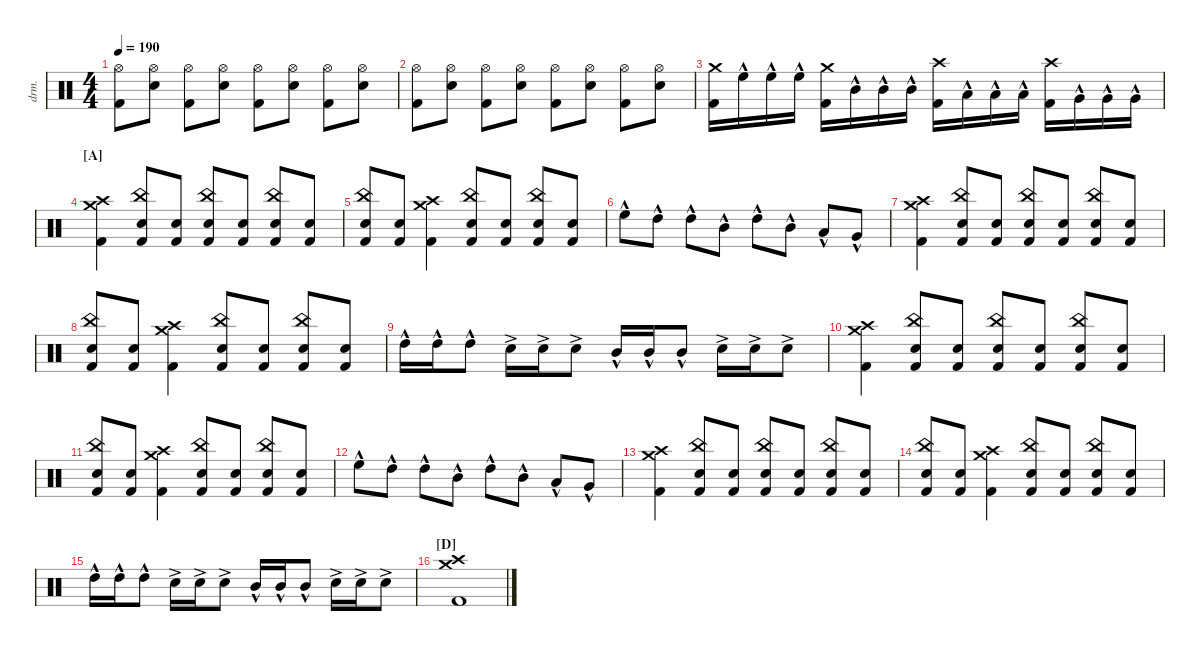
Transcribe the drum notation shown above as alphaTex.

\defaultSystemsLayout 4
\hideDynamics
\bracketExtendMode nobrackets
\otherSystemsTrackNameOrientation horizontal
\track ("Drumkit" "drm.") {instrument percussion}
\staff {score}
\articulation defaults
\ts (4 4)
\tempo 190
\clef neutral
\ks c
("Kick (hit) 2" "Hi-Hat (open)").8{dy mf beam Down} ("Snare (hit) 2" "Hi-Hat (open)").8{beam Down} ("Kick (hit) 2" "Hi-Hat (open)").8{beam Down} ("Snare (hit) 2" "Hi-Hat (open)").8{beam Down} ("Kick (hit) 2" "Hi-Hat (open)").8{beam Down} ("Snare (hit) 2" "Hi-Hat (open)").8{beam Down} ("Kick (hit) 2" "Hi-Hat (open)").8{beam Down} ("Snare (hit) 2" "Hi-Hat (open)").8{beam Down} |
("Kick (hit) 2" "Hi-Hat (open)").8{beam Down} ("Snare (hit) 2" "Hi-Hat (open)").8{beam Down} ("Kick (hit) 2" "Hi-Hat (open)").8{beam Down} ("Snare (hit) 2" "Hi-Hat (open)").8{beam Down} ("Kick (hit) 2" "Hi-Hat (open)").8{beam Down} ("Snare (hit) 2" "Hi-Hat (open)").8{beam Down} ("Kick (hit) 2" "Hi-Hat (open)").8{beam Down} ("Snare (hit) 2" "Hi-Hat (open)").8{beam Down} |
("Crash medium (hit)" "Kick (hit) 2").16{beam Down} "High Floor Tom (hit)"{hac}.16{beam Down} "High Floor Tom (hit)"{hac}.16{beam Down} "High Floor Tom (hit)"{hac}.16{beam Down} ("Kick (hit) 2" "Crash medium (hit)").16{beam Down} "Mid Tom (hit)"{hac}.16{beam Down} "Mid Tom (hit)"{hac}.16{beam Down} "Mid Tom (hit)"{hac}.16{beam Down} ("Kick (hit) 2" "Crash high (hit)").16{beam Down} "Low Tom (hit)"{hac}.16{beam Down} "Low Tom (hit)"{hac}.16{beam Down} "Low Tom (hit)"{hac}.16{beam Down} ("Kick (hit) 2" "Crash high (hit)").16{beam Down} "Very Low Tom (hit)"{hac}.16{beam Down} "Very Low Tom (hit)"{hac}.16{beam Down} "Very Low Tom (hit)"{hac}.16{beam Down} |
\section ("A" "")
("Kick (hit) 2" "Crash high (hit)" "Crash medium (hit)").4{beam Down} ("Kick (hit) 2" "Snare (hit) 2" "China (hit)").8{beam Up} ("Kick (hit) 2" "Snare (hit) 2").8{beam Up} ("Kick (hit) 2" "Snare (hit) 2" "China (hit)").8{beam Up} ("Kick (hit) 2" "Snare (hit) 2").8{beam Up} ("Kick (hit) 2" "Snare (hit) 2" "China (hit)").8{beam Up} ("Kick (hit) 2" "Snare (hit) 2").8{beam Up} |
("Kick (hit) 2" "Snare (hit) 2" "China (hit)").8{beam Up} ("Kick (hit) 2" "Snare (hit) 2").8{beam Up} ("Kick (hit) 2" "Crash high (hit)" "Crash medium (hit)").4{beam Down} ("Kick (hit) 2" "Snare (hit) 2" "China (hit)").8{beam Up} ("Kick (hit) 2" "Snare (hit) 2").8{beam Up} ("Kick (hit) 2" "Snare (hit) 2" "China (hit)").8{beam Up} ("Kick (hit) 2" "Snare (hit) 2").8{beam Up} |
"High Floor Tom (hit)"{hac}.8{beam Down} "High Tom (hit)"{hac}.8{beam Down} "High Tom (hit)"{hac}.8{beam Down} "Mid Tom (hit)"{hac}.8{beam Down} "High Tom (hit)"{hac}.8{beam Down} "Mid Tom (hit)"{hac}.8{beam Down} "Low Tom (hit)"{hac}.8{beam Up} "Very Low Tom (hit)"{hac}.8{beam Up} |
("Kick (hit) 2" "Crash high (hit)" "Crash medium (hit)").4{beam Down} ("Kick (hit) 2" "Snare (hit) 2" "China (hit)").8{beam Up} ("Kick (hit) 2" "Snare (hit) 2").8{beam Up} ("Kick (hit) 2" "Snare (hit) 2" "China (hit)").8{beam Up} ("Kick (hit) 2" "Snare (hit) 2").8{beam Up} ("Kick (hit) 2" "Snare (hit) 2" "China (hit)").8{beam Up} ("Kick (hit) 2" "Snare (hit) 2").8{beam Up} |
("Kick (hit) 2" "Snare (hit) 2" "China (hit)").8{beam Up} ("Kick (hit) 2" "Snare (hit) 2").8{beam Up} ("Kick (hit) 2" "Crash high (hit)" "Crash medium (hit)").4{beam Down} ("Kick (hit) 2" "Snare (hit) 2" "China (hit)").8{beam Up} ("Kick (hit) 2" "Snare (hit) 2").8{beam Up} ("Kick (hit) 2" "Snare (hit) 2" "China (hit)").8{beam Up} ("Kick (hit) 2" "Snare (hit) 2").8{beam Up} |
"High Tom (hit)"{hac}.16{beam Down} "High Tom (hit)"{hac}.16{beam Down} "High Tom (hit)"{hac}.8{beam Down} "Snare (hit) 2"{ac}.16{beam Down} "Snare (hit) 2"{ac}.16{beam Down} "Snare (hit) 2"{ac}.8{beam Down} "Mid Tom (hit)"{hac}.16{beam Up} "Mid Tom (hit)"{hac}.16{beam Up} "Mid Tom (hit)"{hac}.8{beam Up} "Snare (hit) 2"{ac}.16{beam Down} "Snare (hit) 2"{ac}.16{beam Down} "Snare (hit) 2"{ac}.8{beam Down} |
("Kick (hit) 2" "Crash high (hit)" "Crash medium (hit)").4{beam Down} ("Kick (hit) 2" "Snare (hit) 2" "China (hit)").8{beam Up} ("Kick (hit) 2" "Snare (hit) 2").8{beam Up} ("Kick (hit) 2" "Snare (hit) 2" "China (hit)").8{beam Up} ("Kick (hit) 2" "Snare (hit) 2").8{beam Up} ("Kick (hit) 2" "Snare (hit) 2" "China (hit)").8{beam Up} ("Kick (hit) 2" "Snare (hit) 2").8{beam Up} |
("Kick (hit) 2" "Snare (hit) 2" "China (hit)").8{beam Up} ("Kick (hit) 2" "Snare (hit) 2").8{beam Up} ("Kick (hit) 2" "Crash high (hit)" "Crash medium (hit)").4{beam Down} ("Kick (hit) 2" "Snare (hit) 2" "China (hit)").8{beam Up} ("Kick (hit) 2" "Snare (hit) 2").8{beam Up} ("Kick (hit) 2" "Snare (hit) 2" "China (hit)").8{beam Up} ("Kick (hit) 2" "Snare (hit) 2").8{beam Up} |
"High Floor Tom (hit)"{hac}.8{beam Down} "High Tom (hit)"{hac}.8{beam Down} "High Tom (hit)"{hac}.8{beam Down} "Mid Tom (hit)"{hac}.8{beam Down} "High Tom (hit)"{hac}.8{beam Down} "Mid Tom (hit)"{hac}.8{beam Down} "Low Tom (hit)"{hac}.8{beam Up} "Very Low Tom (hit)"{hac}.8{beam Up} |
("Kick (hit) 2" "Crash high (hit)" "Crash medium (hit)").4{beam Down} ("Kick (hit) 2" "Snare (hit) 2" "China (hit)").8{beam Up} ("Kick (hit) 2" "Snare (hit) 2").8{beam Up} ("Kick (hit) 2" "Snare (hit) 2" "China (hit)").8{beam Up} ("Kick (hit) 2" "Snare (hit) 2").8{beam Up} ("Kick (hit) 2" "Snare (hit) 2" "China (hit)").8{beam Up} ("Kick (hit) 2" "Snare (hit) 2").8{beam Up} |
("Kick (hit) 2" "Snare (hit) 2" "China (hit)").8{beam Up} ("Kick (hit) 2" "Snare (hit) 2").8{beam Up} ("Kick (hit) 2" "Crash high (hit)" "Crash medium (hit)").4{beam Down} ("Kick (hit) 2" "Snare (hit) 2" "China (hit)").8{beam Up} ("Kick (hit) 2" "Snare (hit) 2").8{beam Up} ("Kick (hit) 2" "Snare (hit) 2" "China (hit)").8{beam Up} ("Kick (hit) 2" "Snare (hit) 2").8{beam Up} |
"High Tom (hit)"{hac}.16{beam Down} "High Tom (hit)"{hac}.16{beam Down} "High Tom (hit)"{hac}.8{beam Down} "Snare (hit) 2"{ac}.16{beam Down} "Snare (hit) 2"{ac}.16{beam Down} "Snare (hit) 2"{ac}.8{beam Down} "Mid Tom (hit)"{hac}.16{beam Up} "Mid Tom (hit)"{hac}.16{beam Up} "Mid Tom (hit)"{hac}.8{beam Up} "Snare (hit) 2"{ac}.16{beam Down} "Snare (hit) 2"{ac}.16{beam Down} "Snare (hit) 2"{ac}.8{beam Down} |
\section ("D" "")
("Kick (hit) 2" "Crash high (hit)" "Crash medium (hit)").1{beam Down}
